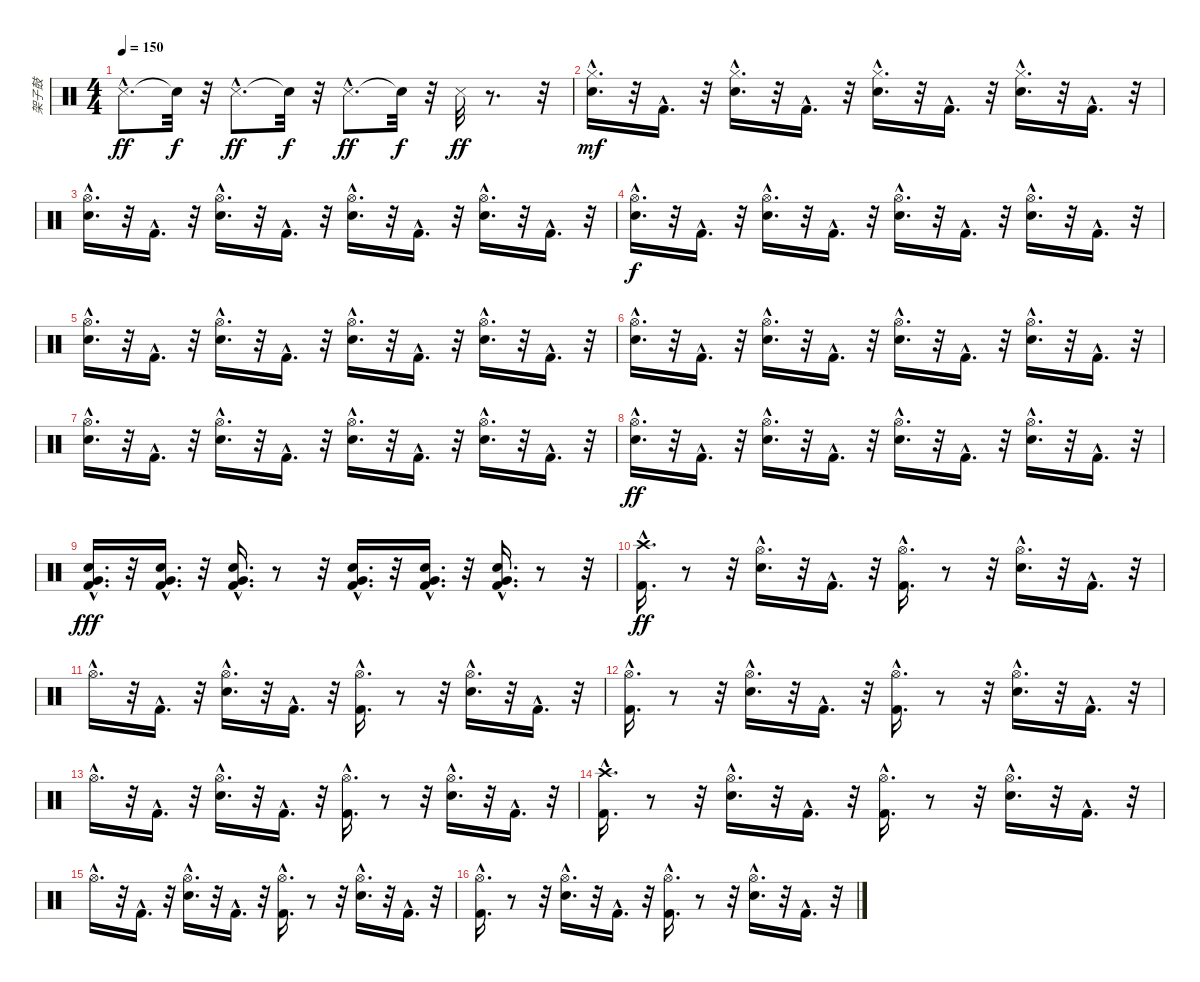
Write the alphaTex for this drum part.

\track ("架子鼓" "架子鼓") {instrument percussion}
\staff {score}
\articulation defaults
\ts (4 4)
\tempo 150
\clef neutral
\ks c "Snare (side stick) 3"{hac}.8{d dy ff} "Snare (hit)"{t}.32{dy f}
r.32 "Snare (side stick) 3"{hac}.8{d dy ff} "Snare (hit)"{t}.32{dy f} r.32 "Snare (side stick) 3"{hac}.8{d dy ff} "Snare (hit)"{t}.32{dy f} r.32 "Snare (side stick) 3".32{dy ff} r.8{d} r.32 |
("Snare (hit) 2"{hac} "Hi-Hat (closed)"{hac}).16{d dy mf} r.32 "Kick (hit) 2"{hac}.16{d} r.32 ("Snare (hit) 2"{hac} "Hi-Hat (closed)"{hac}).16{d} r.32 "Kick (hit) 2"{hac}.16{d} r.32 ("Snare (hit) 2"{hac} "Hi-Hat (closed)"{hac}).16{d} r.32 "Kick (hit) 2"{hac}.16{d} r.32 ("Snare (hit) 2"{hac} "Hi-Hat (closed)"{hac}).16{d} r.32 "Kick (hit) 2"{hac}.16{d} r.32 |
("Snare (hit) 2"{hac} "Hi-Hat (open)"{hac}).16{d} r.32 "Kick (hit) 2"{hac}.16{d} r.32 ("Snare (hit) 2"{hac} "Hi-Hat (open)"{hac}).16{d} r.32 "Kick (hit) 2"{hac}.16{d} r.32 ("Snare (hit) 2"{hac} "Hi-Hat (open)"{hac}).16{d} r.32 "Kick (hit) 2"{hac}.16{d} r.32 ("Snare (hit) 2"{hac} "Hi-Hat (open)"{hac}).16{d} r.32 "Kick (hit) 2"{hac}.16{d} r.32 |
("Hi-Hat (open)"{hac} "Snare (hit) 2"{hac}).16{d dy f} r.32 "Kick (hit) 2"{hac}.16{d} r.32 ("Snare (hit) 2"{hac} "Hi-Hat (open)"{hac}).16{d} r.32 "Kick (hit) 2"{hac}.16{d} r.32 ("Snare (hit) 2"{hac} "Hi-Hat (open)"{hac}).16{d} r.32 "Kick (hit) 2"{hac}.16{d} r.32 ("Snare (hit) 2"{hac} "Hi-Hat (open)"{hac}).16{d} r.32 "Kick (hit) 2"{hac}.16{d} r.32 |
("Snare (hit) 2"{hac} "Hi-Hat (open)"{hac}).16{d} r.32 "Kick (hit) 2"{hac}.16{d} r.32 ("Snare (hit) 2"{hac} "Hi-Hat (open)"{hac}).16{d} r.32 "Kick (hit) 2"{hac}.16{d} r.32 ("Snare (hit) 2"{hac} "Hi-Hat (open)"{hac}).16{d} r.32 "Kick (hit) 2"{hac}.16{d} r.32 ("Snare (hit) 2"{hac} "Hi-Hat (open)"{hac}).16{d} r.32 "Kick (hit) 2"{hac}.16{d} r.32 |
("Snare (hit) 2"{hac} "Hi-Hat (open)"{hac}).16{d} r.32 "Kick (hit) 2"{hac}.16{d} r.32 ("Snare (hit) 2"{hac} "Hi-Hat (open)"{hac}).16{d} r.32 "Kick (hit) 2"{hac}.16{d} r.32 ("Snare (hit) 2"{hac} "Hi-Hat (open)"{hac}).16{d} r.32 "Kick (hit) 2"{hac}.16{d} r.32 ("Snare (hit) 2"{hac} "Hi-Hat (open)"{hac}).16{d} r.32 "Kick (hit) 2"{hac}.16{d} r.32 |
("Snare (hit) 2"{hac} "Hi-Hat (open)"{hac}).16{d} r.32 "Kick (hit) 2"{hac}.16{d} r.32 ("Snare (hit) 2"{hac} "Hi-Hat (open)"{hac}).16{d} r.32 "Kick (hit) 2"{hac}.16{d} r.32 ("Snare (hit) 2"{hac} "Hi-Hat (open)"{hac}).16{d} r.32 "Kick (hit) 2"{hac}.16{d} r.32 ("Snare (hit) 2"{hac} "Hi-Hat (open)"{hac}).16{d} r.32 "Kick (hit) 2"{hac}.16{d} r.32 |
("Hi-Hat (open)"{hac} "Snare (hit) 2"{hac}).16{d dy ff} r.32 "Kick (hit) 2"{hac}.16{d} r.32 ("Snare (hit) 2"{hac} "Hi-Hat (open)"{hac}).16{d} r.32 "Kick (hit) 2"{hac}.16{d} r.32 ("Snare (hit) 2"{hac} "Hi-Hat (open)"{hac}).16{d} r.32 "Kick (hit) 2"{hac}.16{d} r.32 ("Snare (hit) 2"{hac} "Hi-Hat (open)"{hac}).16{d} r.32 "Kick (hit) 2"{hac}.16{d} r.32 |
("Very Low Tom (hit)"{hac} "Snare (hit) 2"{hac} "Kick (hit) 2"{hac}).16{d dy fff} r.32 ("Snare (hit) 2"{hac} "Very Low Tom (hit)"{hac} "Kick (hit) 2"{hac}).16{d} r.32 ("Very Low Tom (hit)"{hac} "Snare (hit) 2"{hac} "Kick (hit) 2"{hac}).16{d} r.8 r.32 ("Very Low Tom (hit)"{hac} "Snare (hit) 2"{hac} "Kick (hit) 2"{hac}).16{d} r.32 ("Snare (hit) 2"{hac} "Very Low Tom (hit)"{hac} "Kick (hit) 2"{hac}).16{d} r.32 ("Very Low Tom (hit)"{hac} "Snare (hit) 2"{hac} "Kick (hit) 2"{hac}).16{d} r.8 r.32 |
("Kick (hit) 2"{hac} "Crash high (hit)"{hac}).16{d dy ff} r.8 r.32 ("Snare (hit) 2"{hac} "Hi-Hat (open)"{hac}).16{d} r.32 "Kick (hit) 2"{hac}.16{d} r.32 ("Kick (hit) 2"{hac} "Hi-Hat (open)"{hac}).16{d} r.8 r.32 ("Hi-Hat (open)"{hac} "Snare (hit) 2"{hac}).16{d} r.32 "Kick (hit) 2"{hac}.16{d} r.32 |
"Hi-Hat (open)"{hac}.16{d} r.32 "Kick (hit) 2"{hac}.16{d} r.32 ("Hi-Hat (open)"{hac} "Snare (hit) 2"{hac}).16{d} r.32 "Kick (hit) 2"{hac}.16{d} r.32 ("Hi-Hat (open)"{hac} "Kick (hit) 2"{hac}).16{d} r.8 r.32 ("Snare (hit) 2"{hac} "Hi-Hat (open)"{hac}).16{d} r.32 "Kick (hit) 2"{hac}.16{d} r.32 |
("Hi-Hat (open)"{hac} "Kick (hit) 2"{hac}).16{d} r.8 r.32 ("Snare (hit) 2"{hac} "Hi-Hat (open)"{hac}).16{d} r.32 "Kick (hit) 2"{hac}.16{d} r.32 ("Kick (hit) 2"{hac} "Hi-Hat (open)"{hac}).16{d} r.8 r.32 ("Snare (hit) 2"{hac} "Hi-Hat (open)"{hac}).16{d} r.32 "Kick (hit) 2"{hac}.16{d} r.32 |
"Hi-Hat (open)"{hac}.16{d} r.32 "Kick (hit) 2"{hac}.16{d} r.32 ("Snare (hit) 2"{hac} "Hi-Hat (open)"{hac}).16{d} r.32 "Kick (hit) 2"{hac}.16{d} r.32 ("Kick (hit) 2"{hac} "Hi-Hat (open)"{hac}).16{d} r.8 r.32 ("Snare (hit) 2"{hac} "Hi-Hat (open)"{hac}).16{d} r.32 "Kick (hit) 2"{hac}.16{d} r.32 |
("Kick (hit) 2"{hac} "Crash high (hit)"{hac}).16{d} r.8 r.32 ("Snare (hit) 2"{hac} "Hi-Hat (open)"{hac}).16{d} r.32 "Kick (hit) 2"{hac}.16{d} r.32 ("Kick (hit) 2"{hac} "Hi-Hat (open)"{hac}).16{d} r.8 r.32 ("Hi-Hat (open)"{hac} "Snare (hit) 2"{hac}).16{d} r.32 "Kick (hit) 2"{hac}.16{d} r.32 |
"Hi-Hat (open)"{hac}.16{d} r.32 "Kick (hit) 2"{hac}.16{d} r.32 ("Hi-Hat (open)"{hac} "Snare (hit) 2"{hac}).16{d} r.32 "Kick (hit) 2"{hac}.16{d} r.32 ("Hi-Hat (open)"{hac} "Kick (hit) 2"{hac}).16{d} r.8 r.32 ("Snare (hit) 2"{hac} "Hi-Hat (open)"{hac}).16{d} r.32 "Kick (hit) 2"{hac}.16{d} r.32 |
("Hi-Hat (open)"{hac} "Kick (hit) 2"{hac}).16{d} r.8 r.32 ("Snare (hit) 2"{hac} "Hi-Hat (open)"{hac}).16{d} r.32 "Kick (hit) 2"{hac}.16{d} r.32 ("Kick (hit) 2"{hac} "Hi-Hat (open)"{hac}).16{d} r.8 r.32 ("Snare (hit) 2"{hac} "Hi-Hat (open)"{hac}).16{d} r.32 "Kick (hit) 2"{hac}.16{d} r.32
